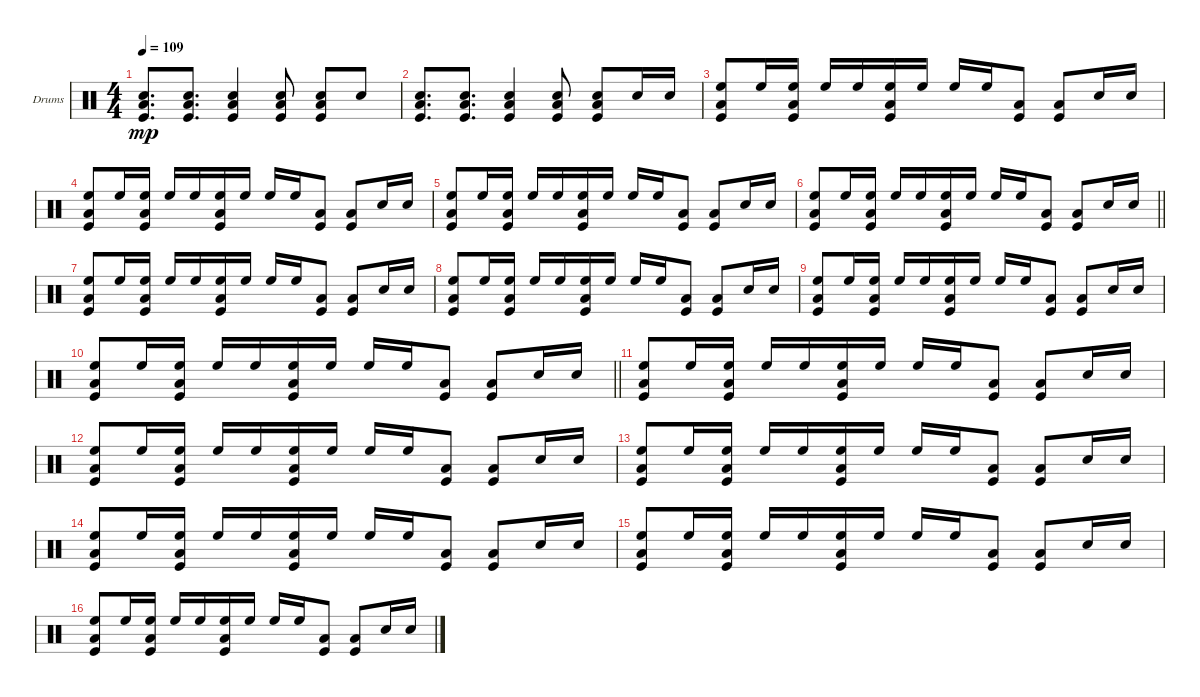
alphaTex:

\defaultSystemsLayout 4
\bracketExtendMode groupsimilarinstruments
\firstSystemTrackNameOrientation horizontal
\otherSystemsTrackNameOrientation horizontal
\track ("Drumkit" "Drums") {instrument percussion}
\staff {score}
\articulation defaults
\ts (4 4)
\tempo 109
\clef neutral
\scale
0.528409
\ks c
("Kick (hit)" "Low Tom (hit)" "Snare (hit) 2").8{d dy mp} ("Kick (hit)" "Low Tom (hit)" "Snare (hit) 2").8{d} ("Kick (hit)" "Low Tom (hit)" "Snare (hit) 2").4 ("Kick (hit)" "Low Tom (hit)" "Snare (hit) 2").8 ("Kick (hit)" "Low Tom (hit)" "Snare (hit) 2").8 "Snare (hit) 2".8 |
\scale
0.471591 ("Kick (hit)" "Low Tom (hit)" "Snare (hit) 2").8{d} ("Kick (hit)" "Low Tom (hit)" "Snare (hit) 2").8{d} ("Kick (hit)" "Low Tom (hit)" "Snare (hit) 2").4 ("Kick (hit)" "Low Tom (hit)" "Snare (hit) 2").8 ("Kick (hit)" "Low Tom (hit)" "Snare (hit) 2").8 "Snare (hit) 2".16 "Snare (hit) 2".16 |
\scale
0.5 ("Kick (hit)" "Low Tom (hit)" "High Floor Tom (hit)").8 "High Floor Tom (hit)".16 ("Kick (hit)" "Low Tom (hit)" "High Floor Tom (hit)").16 "High Floor Tom (hit)".16 "High Floor Tom (hit)".16 ("Kick (hit)" "Low Tom (hit)" "High Floor Tom (hit)").16 "High Floor Tom (hit)".16 "High Floor Tom (hit)".16 "High Floor Tom (hit)".16 ("Kick (hit)" "Low Tom (hit)").8 ("Kick (hit)" "Low Tom (hit)").8 "Snare (hit) 2".16 "Snare (hit) 2".16 |
\scale
0.5 ("Kick (hit)" "Low Tom (hit)" "High Floor Tom (hit)").8 "High Floor Tom (hit)".16 ("Kick (hit)" "Low Tom (hit)" "High Floor Tom (hit)").16 "High Floor Tom (hit)".16 "High Floor Tom (hit)".16 ("Kick (hit)" "Low Tom (hit)" "High Floor Tom (hit)").16 "High Floor Tom (hit)".16 "High Floor Tom (hit)".16 "High Floor Tom (hit)".16 ("Kick (hit)" "Low Tom (hit)").8 ("Kick (hit)" "Low Tom (hit)").8 "Snare (hit) 2".16 "Snare (hit) 2".16 |
\scale
0.5 ("Kick (hit)" "Low Tom (hit)" "High Floor Tom (hit)").8 "High Floor Tom (hit)".16 ("Kick (hit)" "Low Tom (hit)" "High Floor Tom (hit)").16 "High Floor Tom (hit)".16 "High Floor Tom (hit)".16 ("Kick (hit)" "Low Tom (hit)" "High Floor Tom (hit)").16 "High Floor Tom (hit)".16 "High Floor Tom (hit)".16 "High Floor Tom (hit)".16 ("Kick (hit)" "Low Tom (hit)").8 ("Kick (hit)" "Low Tom (hit)").8 "Snare (hit) 2".16 "Snare (hit) 2".16 |
\scale
0.5
\barLineRight lightlight
("Kick (hit)" "Low Tom (hit)" "High Floor Tom (hit)").8 "High Floor Tom (hit)".16 ("Kick (hit)" "Low Tom (hit)" "High Floor Tom (hit)").16 "High Floor Tom (hit)".16 "High Floor Tom (hit)".16 ("Kick (hit)" "Low Tom (hit)" "High Floor Tom (hit)").16 "High Floor Tom (hit)".16 "High Floor Tom (hit)".16 "High Floor Tom (hit)".16 ("Kick (hit)" "Low Tom (hit)").8 ("Kick (hit)" "Low Tom (hit)").8 "Snare (hit) 2".16 "Snare (hit) 2".16 |
\scale
0.5 ("Kick (hit)" "Low Tom (hit)" "High Floor Tom (hit)").8 "High Floor Tom (hit)".16 ("Kick (hit)" "Low Tom (hit)" "High Floor Tom (hit)").16 "High Floor Tom (hit)".16 "High Floor Tom (hit)".16 ("Kick (hit)" "Low Tom (hit)" "High Floor Tom (hit)").16 "High Floor Tom (hit)".16 "High Floor Tom (hit)".16 "High Floor Tom (hit)".16 ("Kick (hit)" "Low Tom (hit)").8 ("Kick (hit)" "Low Tom (hit)").8 "Snare (hit) 2".16 "Snare (hit) 2".16 |
\scale
0.5 ("Kick (hit)" "Low Tom (hit)" "High Floor Tom (hit)").8 "High Floor Tom (hit)".16 ("Kick (hit)" "Low Tom (hit)" "High Floor Tom (hit)").16 "High Floor Tom (hit)".16 "High Floor Tom (hit)".16 ("Kick (hit)" "Low Tom (hit)" "High Floor Tom (hit)").16 "High Floor Tom (hit)".16 "High Floor Tom (hit)".16 "High Floor Tom (hit)".16 ("Kick (hit)" "Low Tom (hit)").8 ("Kick (hit)" "Low Tom (hit)").8 "Snare (hit) 2".16 "Snare (hit) 2".16 |
\scale
0.5 ("Kick (hit)" "Low Tom (hit)" "High Floor Tom (hit)").8 "High Floor Tom (hit)".16 ("Kick (hit)" "Low Tom (hit)" "High Floor Tom (hit)").16 "High Floor Tom (hit)".16 "High Floor Tom (hit)".16 ("Kick (hit)" "Low Tom (hit)" "High Floor Tom (hit)").16 "High Floor Tom (hit)".16 "High Floor Tom (hit)".16 "High Floor Tom (hit)".16 ("Kick (hit)" "Low Tom (hit)").8 ("Kick (hit)" "Low Tom (hit)").8 "Snare (hit) 2".16 "Snare (hit) 2".16 |
\scale
0.5
\barLineRight lightlight
("Kick (hit)" "Low Tom (hit)" "High Floor Tom (hit)").8 "High Floor Tom (hit)".16 ("Kick (hit)" "Low Tom (hit)" "High Floor Tom (hit)").16 "High Floor Tom (hit)".16 "High Floor Tom (hit)".16 ("Kick (hit)" "Low Tom (hit)" "High Floor Tom (hit)").16 "High Floor Tom (hit)".16 "High Floor Tom (hit)".16 "High Floor Tom (hit)".16 ("Kick (hit)" "Low Tom (hit)").8 ("Kick (hit)" "Low Tom (hit)").8 "Snare (hit) 2".16 "Snare (hit) 2".16 |
\scale
0.5 ("Kick (hit)" "Low Tom (hit)" "High Floor Tom (hit)").8 "High Floor Tom (hit)".16 ("Kick (hit)" "Low Tom (hit)" "High Floor Tom (hit)").16 "High Floor Tom (hit)".16 "High Floor Tom (hit)".16 ("Kick (hit)" "Low Tom (hit)" "High Floor Tom (hit)").16 "High Floor Tom (hit)".16 "High Floor Tom (hit)".16 "High Floor Tom (hit)".16 ("Kick (hit)" "Low Tom (hit)").8 ("Kick (hit)" "Low Tom (hit)").8 "Snare (hit) 2".16 "Snare (hit) 2".16 |
\scale
0.5 ("Kick (hit)" "Low Tom (hit)" "High Floor Tom (hit)").8 "High Floor Tom (hit)".16 ("Kick (hit)" "Low Tom (hit)" "High Floor Tom (hit)").16 "High Floor Tom (hit)".16 "High Floor Tom (hit)".16 ("Kick (hit)" "Low Tom (hit)" "High Floor Tom (hit)").16 "High Floor Tom (hit)".16 "High Floor Tom (hit)".16 "High Floor Tom (hit)".16 ("Kick (hit)" "Low Tom (hit)").8 ("Kick (hit)" "Low Tom (hit)").8 "Snare (hit) 2".16 "Snare (hit) 2".16 |
\scale
0.5 ("Kick (hit)" "Low Tom (hit)" "High Floor Tom (hit)").8 "High Floor Tom (hit)".16 ("Kick (hit)" "Low Tom (hit)" "High Floor Tom (hit)").16 "High Floor Tom (hit)".16 "High Floor Tom (hit)".16 ("Kick (hit)" "Low Tom (hit)" "High Floor Tom (hit)").16 "High Floor Tom (hit)".16 "High Floor Tom (hit)".16 "High Floor Tom (hit)".16 ("Kick (hit)" "Low Tom (hit)").8 ("Kick (hit)" "Low Tom (hit)").8 "Snare (hit) 2".16 "Snare (hit) 2".16 |
("Kick (hit)" "Low Tom (hit)" "High Floor Tom (hit)").8 "High Floor Tom (hit)".16 ("Kick (hit)" "Low Tom (hit)" "High Floor Tom (hit)").16 "High Floor Tom (hit)".16 "High Floor Tom (hit)".16 ("Kick (hit)" "Low Tom (hit)" "High Floor Tom (hit)").16 "High Floor Tom (hit)".16 "High Floor Tom (hit)".16 "High Floor Tom (hit)".16 ("Kick (hit)" "Low Tom (hit)").8 ("Kick (hit)" "Low Tom (hit)").8 "Snare (hit) 2".16 "Snare (hit) 2".16 |
\scale
0.5 ("Kick (hit)" "Low Tom (hit)" "High Floor Tom (hit)").8 "High Floor Tom (hit)".16 ("Kick (hit)" "Low Tom (hit)" "High Floor Tom (hit)").16 "High Floor Tom (hit)".16 "High Floor Tom (hit)".16 ("Kick (hit)" "Low Tom (hit)" "High Floor Tom (hit)").16 "High Floor Tom (hit)".16 "High Floor Tom (hit)".16 "High Floor Tom (hit)".16 ("Kick (hit)" "Low Tom (hit)").8 ("Kick (hit)" "Low Tom (hit)").8 "Snare (hit) 2".16 "Snare (hit) 2".16 |
("Kick (hit)" "Low Tom (hit)" "High Floor Tom (hit)").8 "High Floor Tom (hit)".16 ("Kick (hit)" "Low Tom (hit)" "High Floor Tom (hit)").16 "High Floor Tom (hit)".16 "High Floor Tom (hit)".16 ("Kick (hit)" "Low Tom (hit)" "High Floor Tom (hit)").16 "High Floor Tom (hit)".16 "High Floor Tom (hit)".16 "High Floor Tom (hit)".16 ("Kick (hit)" "Low Tom (hit)").8 ("Kick (hit)" "Low Tom (hit)").8 "Snare (hit) 2".16 "Snare (hit) 2".16
